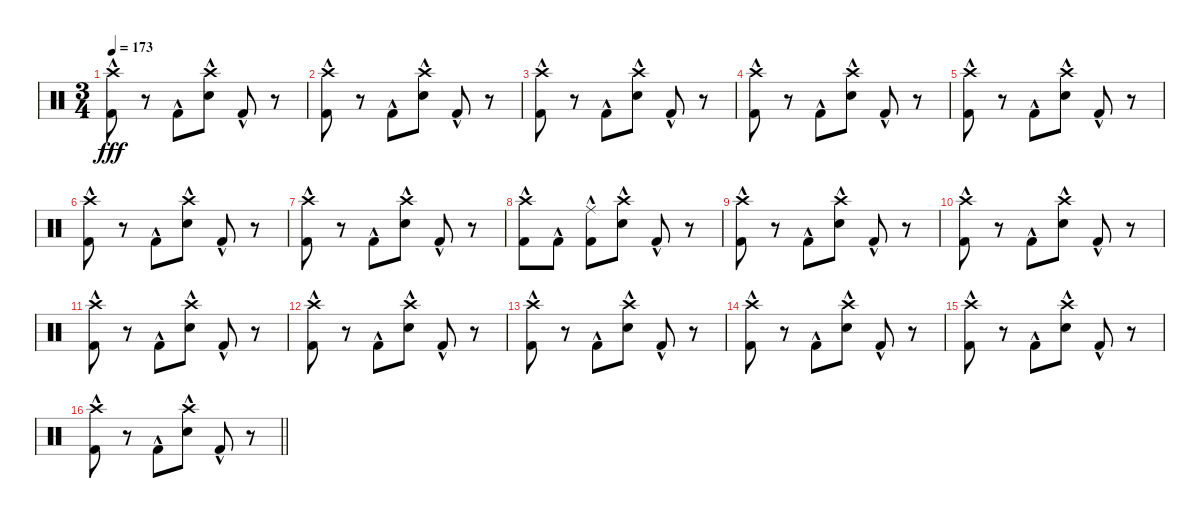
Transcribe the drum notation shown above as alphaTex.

\track (" " " ") {instrument percussion}
\staff {score}
\articulation defaults
\ts (3 4)
\tempo 173
\clef neutral
\ks c
("Crash high (hit)"{hac} "Kick (hit) 2"{hac}).8{dy fff} r.8 "Kick (hit) 2"{hac}.8 ("Crash high (hit)"{hac} "Electric Snare (hit)"{hac}).8 "Kick (hit) 2"{hac}.8 r.8 |
("Crash high (hit)"{hac} "Kick (hit) 2"{hac}).8 r.8 "Kick (hit) 2"{hac}.8 ("Crash high (hit)"{hac} "Electric Snare (hit)"{hac}).8 "Kick (hit) 2"{hac}.8 r.8 |
("Crash high (hit)"{hac} "Kick (hit) 2"{hac}).8 r.8 "Kick (hit) 2"{hac}.8 ("Crash high (hit)"{hac} "Electric Snare (hit)"{hac}).8 "Kick (hit) 2"{hac}.8 r.8 |
("Crash high (hit)"{hac} "Kick (hit) 2"{hac}).8 r.8 "Kick (hit) 2"{hac}.8 ("Crash high (hit)"{hac} "Electric Snare (hit)"{hac}).8 "Kick (hit) 2"{hac}.8 r.8 |
("Crash high (hit)"{hac} "Kick (hit) 2"{hac}).8 r.8 "Kick (hit) 2"{hac}.8 ("Crash high (hit)"{hac} "Electric Snare (hit)"{hac}).8 "Kick (hit) 2"{hac}.8 r.8 |
("Crash high (hit)"{hac} "Kick (hit) 2"{hac}).8 r.8 "Kick (hit) 2"{hac}.8 ("Crash high (hit)"{hac} "Electric Snare (hit)"{hac}).8 "Kick (hit) 2"{hac}.8 r.8 |
("Crash high (hit)"{hac} "Kick (hit) 2"{hac}).8 r.8 "Kick (hit) 2"{hac}.8 ("Crash high (hit)"{hac} "Electric Snare (hit)"{hac}).8 "Kick (hit) 2"{hac}.8 r.8 |
("Crash high (hit)"{hac} "Kick (hit) 2"{hac}).8 "Kick (hit) 2"{hac}.8 ("Ride (middle)"{hac} "Kick (hit) 2"{hac}).8 ("Crash high (hit)"{hac} "Electric Snare (hit)"{hac}).8 "Kick (hit) 2"{hac}.8 r.8 |
("Crash high (hit)"{hac} "Kick (hit) 2"{hac}).8 r.8 "Kick (hit) 2"{hac}.8 ("Crash high (hit)"{hac} "Electric Snare (hit)"{hac}).8 "Kick (hit) 2"{hac}.8 r.8 |
("Crash high (hit)"{hac} "Kick (hit) 2"{hac}).8 r.8 "Kick (hit) 2"{hac}.8 ("Crash high (hit)"{hac} "Electric Snare (hit)"{hac}).8 "Kick (hit) 2"{hac}.8 r.8 |
("Crash high (hit)"{hac} "Kick (hit) 2"{hac}).8 r.8 "Kick (hit) 2"{hac}.8 ("Crash high (hit)"{hac} "Electric Snare (hit)"{hac}).8 "Kick (hit) 2"{hac}.8 r.8 |
("Crash high (hit)"{hac} "Kick (hit) 2"{hac}).8 r.8 "Kick (hit) 2"{hac}.8 ("Crash high (hit)"{hac} "Electric Snare (hit)"{hac}).8 "Kick (hit) 2"{hac}.8 r.8 |
("Crash high (hit)"{hac} "Kick (hit) 2"{hac}).8 r.8 "Kick (hit) 2"{hac}.8 ("Crash high (hit)"{hac} "Electric Snare (hit)"{hac}).8 "Kick (hit) 2"{hac}.8 r.8 |
("Crash high (hit)"{hac} "Kick (hit) 2"{hac}).8 r.8 "Kick (hit) 2"{hac}.8 ("Crash high (hit)"{hac} "Electric Snare (hit)"{hac}).8 "Kick (hit) 2"{hac}.8 r.8 |
("Crash high (hit)"{hac} "Kick (hit) 2"{hac}).8 r.8 "Kick (hit) 2"{hac}.8 ("Crash high (hit)"{hac} "Electric Snare (hit)"{hac}).8 "Kick (hit) 2"{hac}.8 r.8 |
\barLineRight lightlight
("Crash high (hit)"{hac} "Kick (hit) 2"{hac}).8 r.8 "Kick (hit) 2"{hac}.8 ("Crash high (hit)"{hac} "Electric Snare (hit)"{hac}).8 "Kick (hit) 2"{hac}.8 r.8
